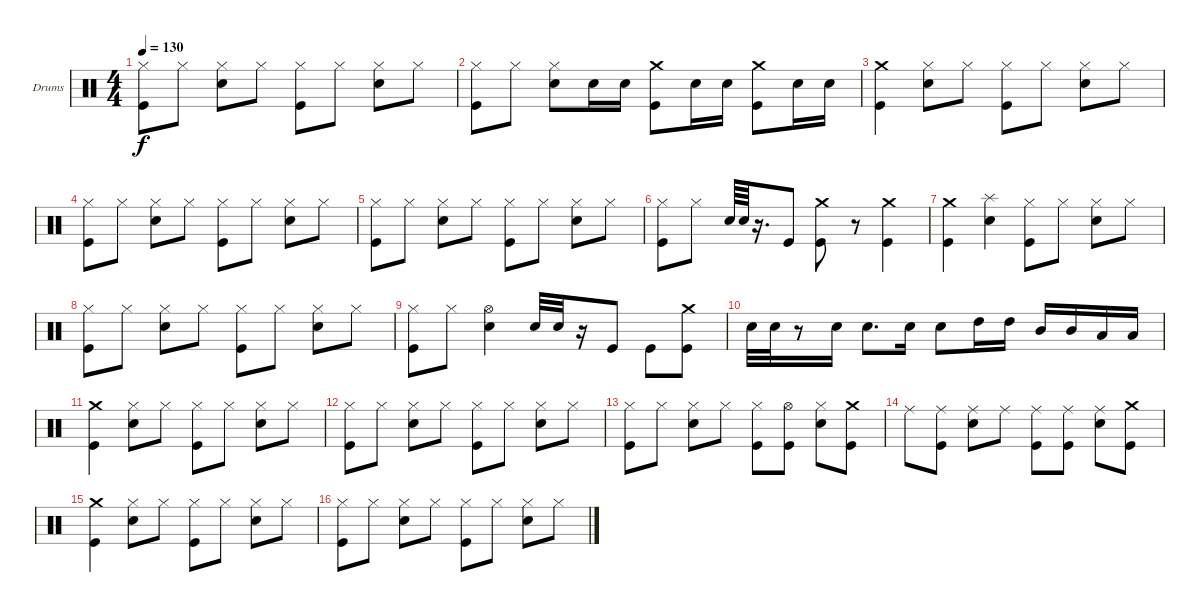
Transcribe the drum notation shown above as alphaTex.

\defaultSystemsLayout 4
\bracketExtendMode groupsimilarinstruments
\firstSystemTrackNameOrientation horizontal
\otherSystemsTrackNameOrientation horizontal
\track ("Stefan Kaufmann" "Drums") {instrument percussion}
\staff {score}
\articulation defaults
\ts (4 4)
\tempo 130
\clef neutral
\ks c
("Hi-Hat (closed)" "Kick (hit)").8{dy f} "Hi-Hat (closed)".8 ("Hi-Hat (closed)" "Snare (hit) 2").8 "Hi-Hat (closed)".8 ("Hi-Hat (closed)" "Kick (hit)").8 "Hi-Hat (closed)".8 ("Hi-Hat (closed)" "Snare (hit) 2").8 "Hi-Hat (closed)".8 |
("Hi-Hat (closed)" "Kick (hit)").8 "Hi-Hat (closed)".8 ("Hi-Hat (closed)" "Snare (hit) 2").8 "Snare (hit) 2".16 "Snare (hit) 2".16 ("Crash medium (hit)" "Kick (hit)").8 "Snare (hit) 2".16 "Snare (hit) 2".16 ("Crash medium (hit)" "Kick (hit)").8 "Snare (hit) 2".16 "Snare (hit) 2".16 |
("Crash medium (hit)" "Kick (hit)").4 ("Hi-Hat (closed)" "Snare (hit) 2").8 "Hi-Hat (closed)".8 ("Hi-Hat (closed)" "Kick (hit)").8 "Hi-Hat (closed)".8 ("Hi-Hat (closed)" "Snare (hit) 2").8 "Hi-Hat (closed)".8 |
("Hi-Hat (closed)" "Kick (hit)").8 "Hi-Hat (closed)".8 ("Hi-Hat (closed)" "Snare (hit) 2").8 "Hi-Hat (closed)".8 ("Hi-Hat (closed)" "Kick (hit)").8 "Hi-Hat (closed)".8 ("Hi-Hat (closed)" "Snare (hit) 2").8 "Hi-Hat (closed)".8 |
("Hi-Hat (closed)" "Kick (hit)").8 "Hi-Hat (closed)".8 ("Hi-Hat (closed)" "Snare (hit) 2").8 "Hi-Hat (closed)".8 ("Hi-Hat (closed)" "Kick (hit)").8 "Hi-Hat (closed)".8 ("Hi-Hat (closed)" "Snare (hit) 2").8 "Hi-Hat (closed)".8 |
("Hi-Hat (closed)" "Kick (hit)").8 "Hi-Hat (closed)".8 "Snare (hit) 2".64 "Snare (hit) 2".64 r.16{d} "Kick (hit)".8 ("Crash medium (hit)" "Kick (hit)").8 r.8 ("Crash medium (hit)" "Kick (hit)").4 |
("Crash medium (hit)" "Kick (hit)").4 ("Splash (hit)" "Snare (hit) 2").4 ("Hi-Hat (closed)" "Kick (hit)").8 "Hi-Hat (closed)".8 ("Hi-Hat (closed)" "Snare (hit) 2").8 "Hi-Hat (closed)".8 |
("Hi-Hat (closed)" "Kick (hit)").8 "Hi-Hat (closed)".8 ("Hi-Hat (closed)" "Snare (hit) 2").8 "Hi-Hat (closed)".8 ("Hi-Hat (closed)" "Kick (hit)").8 "Hi-Hat (closed)".8 ("Hi-Hat (closed)" "Snare (hit) 2").8 "Hi-Hat (closed)".8 |
("Hi-Hat (closed)" "Kick (hit)").8 "Hi-Hat (closed)".8 ("Hi-Hat (open)" "Snare (hit) 2").4 "Snare (hit) 2".32 "Snare (hit) 2".32 r.16 "Kick (hit)".8 "Kick (hit)".8 ("Crash medium (hit)" "Kick (hit)").8 |
"Snare (hit) 2".32 "Snare (hit) 2".32 r.8 "Snare (hit) 2".16 "Snare (hit) 2".8{d} "Snare (hit) 2".16 "Snare (hit) 2".8 "High Tom (hit)".16 "High Tom (hit)".16 "Mid Tom (hit)".16 "Mid Tom (hit)".16 "Low Tom (hit)".16 "Low Tom (hit)".16 |
("Crash medium (hit)" "Kick (hit)").4 ("Hi-Hat (closed)" "Snare (hit) 2").8 "Hi-Hat (closed)".8 ("Hi-Hat (closed)" "Kick (hit)").8 "Hi-Hat (closed)".8 ("Hi-Hat (closed)" "Snare (hit) 2").8 "Hi-Hat (closed)".8 |
("Hi-Hat (closed)" "Kick (hit)").8 "Hi-Hat (closed)".8 ("Hi-Hat (closed)" "Snare (hit) 2").8 "Hi-Hat (closed)".8 ("Hi-Hat (closed)" "Kick (hit)").8 "Hi-Hat (closed)".8 ("Hi-Hat (closed)" "Snare (hit) 2").8 "Hi-Hat (closed)".8 |
("Hi-Hat (closed)" "Kick (hit)").8 "Hi-Hat (closed)".8 ("Hi-Hat (closed)" "Snare (hit) 2").8 "Hi-Hat (closed)".8 ("Hi-Hat (closed)" "Kick (hit)").8 ("Hi-Hat (open)" "Kick (hit)").8 ("Hi-Hat (closed)" "Snare (hit) 2").8 ("Crash medium (hit)" "Kick (hit)").8 |
"Ride (middle)".8 ("Ride (middle)" "Kick (hit)").8 ("Ride (middle)" "Snare (hit) 2").8 "Ride (middle)".8 ("Ride (middle)" "Kick (hit)").8 ("Ride (middle)" "Kick (hit)").8 ("Ride (middle)" "Snare (hit) 2").8 ("Crash medium (hit)" "Kick (hit)").8 |
("Crash medium (hit)" "Kick (hit)").4 ("Hi-Hat (closed)" "Snare (hit) 2").8 "Hi-Hat (closed)".8 ("Hi-Hat (closed)" "Kick (hit)").8 "Hi-Hat (closed)".8 ("Hi-Hat (closed)" "Snare (hit) 2").8 "Hi-Hat (closed)".8 |
("Hi-Hat (closed)" "Kick (hit)").8 "Hi-Hat (closed)".8 ("Hi-Hat (closed)" "Snare (hit) 2").8 "Hi-Hat (closed)".8 ("Hi-Hat (closed)" "Kick (hit)").8 "Hi-Hat (closed)".8 ("Hi-Hat (closed)" "Snare (hit) 2").8 "Hi-Hat (closed)".8
